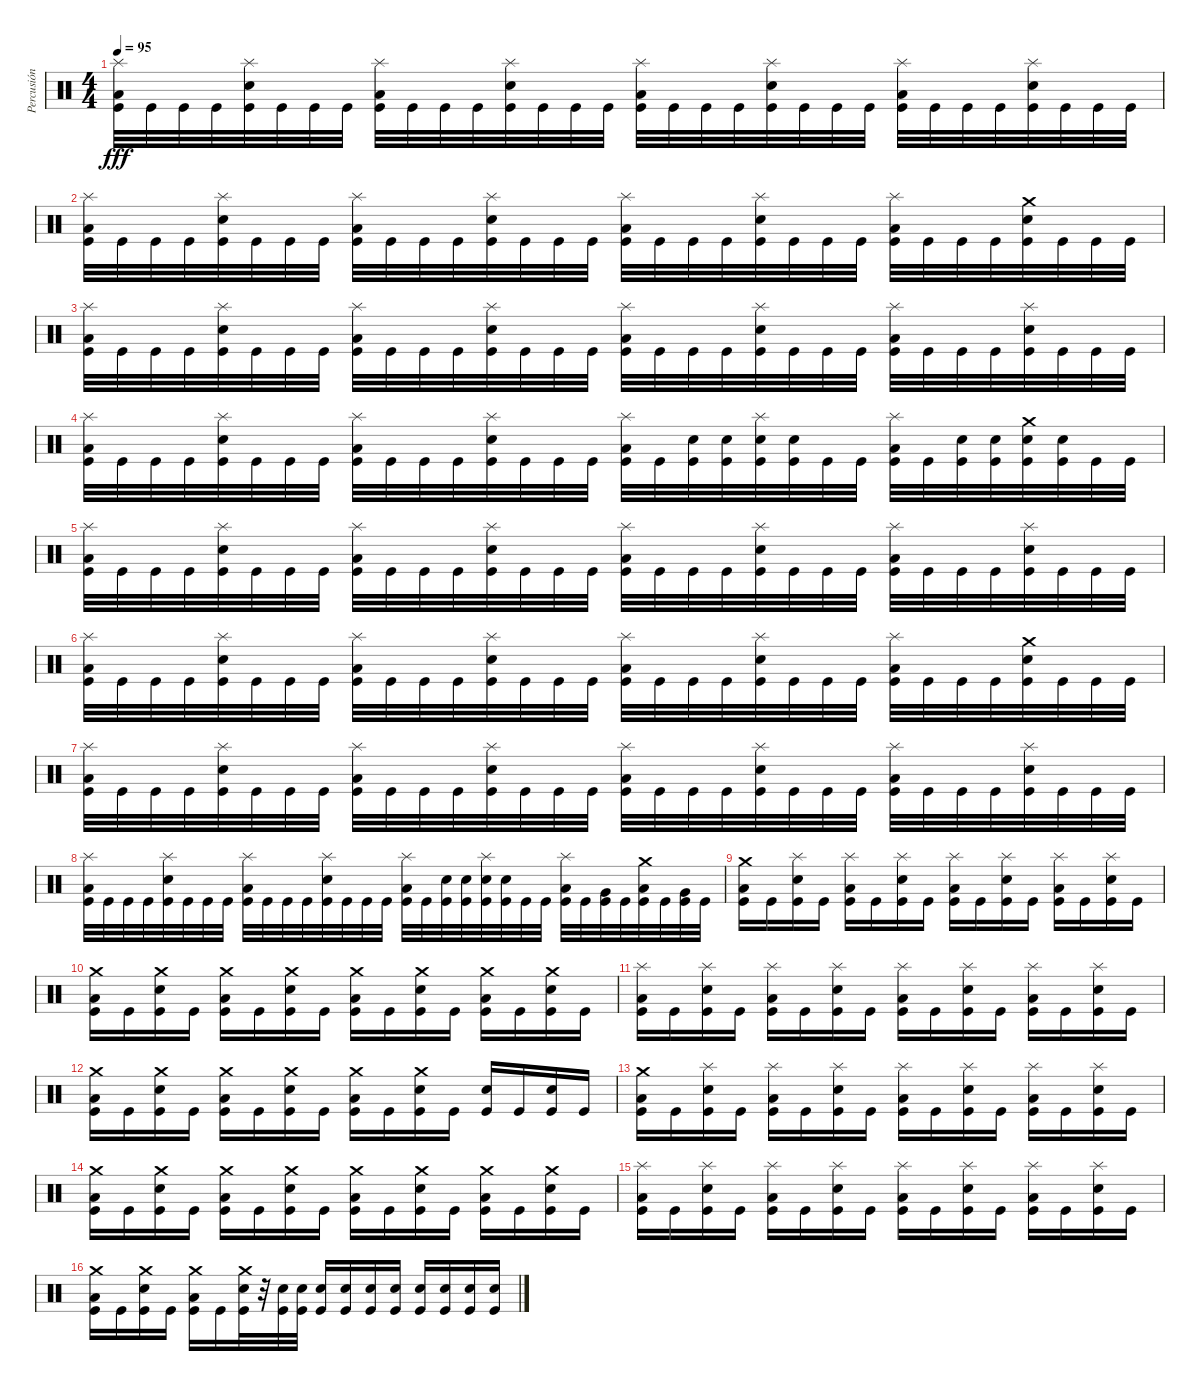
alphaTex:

\track ("Percusión" "Percusión") {instrument percussion}
\staff {score}
\articulation defaults
\ts (4 4)
\tempo 95
\clef neutral
\ks c
("Splash (hit)" "Low Floor Tom (hit)" "Kick (hit)").32{dy fff} "Kick (hit)".32 "Kick (hit)".32 "Kick (hit)".32 ("Splash (hit)" "Snare (hit) 2" "Kick (hit)").32 "Kick (hit)".32 "Kick (hit)".32 "Kick (hit)".32 ("Splash (hit)" "Low Floor Tom (hit)" "Kick (hit)").32 "Kick (hit)".32 "Kick (hit)".32 "Kick (hit)".32 ("Splash (hit)" "Snare (hit) 2" "Kick (hit)").32 "Kick (hit)".32 "Kick (hit)".32 "Kick (hit)".32 ("Splash (hit)" "Low Floor Tom (hit)" "Kick (hit)").32 "Kick (hit)".32 "Kick (hit)".32 "Kick (hit)".32 ("Splash (hit)" "Snare (hit) 2" "Kick (hit)").32 "Kick (hit)".32 "Kick (hit)".32 "Kick (hit)".32 ("Splash (hit)" "Low Floor Tom (hit)" "Kick (hit)").32 "Kick (hit)".32 "Kick (hit)".32 "Kick (hit)".32 ("Splash (hit)" "Snare (hit) 2" "Kick (hit)").32 "Kick (hit)".32 "Kick (hit)".32 "Kick (hit)".32 |
("Splash (hit)" "Low Floor Tom (hit)" "Kick (hit)").32 "Kick (hit)".32 "Kick (hit)".32 "Kick (hit)".32 ("Splash (hit)" "Snare (hit) 2" "Kick (hit)").32 "Kick (hit)".32 "Kick (hit)".32 "Kick (hit)".32 ("Splash (hit)" "Low Floor Tom (hit)" "Kick (hit)").32 "Kick (hit)".32 "Kick (hit)".32 "Kick (hit)".32 ("Splash (hit)" "Snare (hit) 2" "Kick (hit)").32 "Kick (hit)".32 "Kick (hit)".32 "Kick (hit)".32 ("Splash (hit)" "Low Floor Tom (hit)" "Kick (hit)").32 "Kick (hit)".32 "Kick (hit)".32 "Kick (hit)".32 ("Splash (hit)" "Snare (hit) 2" "Kick (hit)").32 "Kick (hit)".32 "Kick (hit)".32 "Kick (hit)".32 ("Splash (hit)" "Low Floor Tom (hit)" "Kick (hit)").32 "Kick (hit)".32 "Kick (hit)".32 "Kick (hit)".32 ("Crash medium (hit)" "Snare (hit) 2" "Kick (hit)").32 "Kick (hit)".32 "Kick (hit)".32 "Kick (hit)".32 |
("Splash (hit)" "Low Floor Tom (hit)" "Kick (hit)").32 "Kick (hit)".32 "Kick (hit)".32 "Kick (hit)".32 ("Splash (hit)" "Snare (hit) 2" "Kick (hit)").32 "Kick (hit)".32 "Kick (hit)".32 "Kick (hit)".32 ("Splash (hit)" "Low Floor Tom (hit)" "Kick (hit)").32 "Kick (hit)".32 "Kick (hit)".32 "Kick (hit)".32 ("Splash (hit)" "Snare (hit) 2" "Kick (hit)").32 "Kick (hit)".32 "Kick (hit)".32 "Kick (hit)".32 ("Splash (hit)" "Low Floor Tom (hit)" "Kick (hit)").32 "Kick (hit)".32 "Kick (hit)".32 "Kick (hit)".32 ("Splash (hit)" "Snare (hit) 2" "Kick (hit)").32 "Kick (hit)".32 "Kick (hit)".32 "Kick (hit)".32 ("Splash (hit)" "Low Floor Tom (hit)" "Kick (hit)").32 "Kick (hit)".32 "Kick (hit)".32 "Kick (hit)".32 ("Splash (hit)" "Snare (hit) 2" "Kick (hit)").32 "Kick (hit)".32 "Kick (hit)".32 "Kick (hit)".32 |
("Splash (hit)" "Low Floor Tom (hit)" "Kick (hit)").32 "Kick (hit)".32 "Kick (hit)".32 "Kick (hit)".32 ("Splash (hit)" "Snare (hit) 2" "Kick (hit)").32 "Kick (hit)".32 "Kick (hit)".32 "Kick (hit)".32 ("Splash (hit)" "Low Floor Tom (hit)" "Kick (hit)").32 "Kick (hit)".32 "Kick (hit)".32 "Kick (hit)".32 ("Splash (hit)" "Snare (hit) 2" "Kick (hit)").32 "Kick (hit)".32 "Kick (hit)".32 "Kick (hit)".32 ("Splash (hit)" "Low Floor Tom (hit)" "Kick (hit)").32 "Kick (hit)".32 ("Snare (hit) 2" "Kick (hit)").32 ("Snare (hit) 2" "Kick (hit)").32 ("Splash (hit)" "Snare (hit) 2" "Kick (hit)").32 ("Snare (hit) 2" "Kick (hit)").32 "Kick (hit)".32 "Kick (hit)".32 ("Splash (hit)" "Low Floor Tom (hit)" "Kick (hit)").32 "Kick (hit)".32 ("Snare (hit) 2" "Kick (hit)").32 ("Snare (hit) 2" "Kick (hit)").32 ("Crash medium (hit)" "Snare (hit) 2" "Kick (hit)").32 ("Snare (hit) 2" "Kick (hit)").32 "Kick (hit)".32 "Kick (hit)".32 |
("Splash (hit)" "Low Floor Tom (hit)" "Kick (hit)").32 "Kick (hit)".32 "Kick (hit)".32 "Kick (hit)".32 ("Splash (hit)" "Snare (hit) 2" "Kick (hit)").32 "Kick (hit)".32 "Kick (hit)".32 "Kick (hit)".32 ("Splash (hit)" "Low Floor Tom (hit)" "Kick (hit)").32 "Kick (hit)".32 "Kick (hit)".32 "Kick (hit)".32 ("Splash (hit)" "Snare (hit) 2" "Kick (hit)").32 "Kick (hit)".32 "Kick (hit)".32 "Kick (hit)".32 ("Splash (hit)" "Low Floor Tom (hit)" "Kick (hit)").32 "Kick (hit)".32 "Kick (hit)".32 "Kick (hit)".32 ("Splash (hit)" "Snare (hit) 2" "Kick (hit)").32 "Kick (hit)".32 "Kick (hit)".32 "Kick (hit)".32 ("Splash (hit)" "Low Floor Tom (hit)" "Kick (hit)").32 "Kick (hit)".32 "Kick (hit)".32 "Kick (hit)".32 ("Splash (hit)" "Snare (hit) 2" "Kick (hit)").32 "Kick (hit)".32 "Kick (hit)".32 "Kick (hit)".32 |
("Splash (hit)" "Low Floor Tom (hit)" "Kick (hit)").32 "Kick (hit)".32 "Kick (hit)".32 "Kick (hit)".32 ("Splash (hit)" "Snare (hit) 2" "Kick (hit)").32 "Kick (hit)".32 "Kick (hit)".32 "Kick (hit)".32 ("Splash (hit)" "Low Floor Tom (hit)" "Kick (hit)").32 "Kick (hit)".32 "Kick (hit)".32 "Kick (hit)".32 ("Splash (hit)" "Snare (hit) 2" "Kick (hit)").32 "Kick (hit)".32 "Kick (hit)".32 "Kick (hit)".32 ("Splash (hit)" "Low Floor Tom (hit)" "Kick (hit)").32 "Kick (hit)".32 "Kick (hit)".32 "Kick (hit)".32 ("Splash (hit)" "Snare (hit) 2" "Kick (hit)").32 "Kick (hit)".32 "Kick (hit)".32 "Kick (hit)".32 ("Splash (hit)" "Low Floor Tom (hit)" "Kick (hit)").32 "Kick (hit)".32 "Kick (hit)".32 "Kick (hit)".32 ("Crash medium (hit)" "Snare (hit) 2" "Kick (hit)").32 "Kick (hit)".32 "Kick (hit)".32 "Kick (hit)".32 |
("Splash (hit)" "Low Floor Tom (hit)" "Kick (hit)").32 "Kick (hit)".32 "Kick (hit)".32 "Kick (hit)".32 ("Splash (hit)" "Snare (hit) 2" "Kick (hit)").32 "Kick (hit)".32 "Kick (hit)".32 "Kick (hit)".32 ("Splash (hit)" "Low Floor Tom (hit)" "Kick (hit)").32 "Kick (hit)".32 "Kick (hit)".32 "Kick (hit)".32 ("Splash (hit)" "Snare (hit) 2" "Kick (hit)").32 "Kick (hit)".32 "Kick (hit)".32 "Kick (hit)".32 ("Splash (hit)" "Low Floor Tom (hit)" "Kick (hit)").32 "Kick (hit)".32 "Kick (hit)".32 "Kick (hit)".32 ("Splash (hit)" "Snare (hit) 2" "Kick (hit)").32 "Kick (hit)".32 "Kick (hit)".32 "Kick (hit)".32 ("Splash (hit)" "Low Floor Tom (hit)" "Kick (hit)").32 "Kick (hit)".32 "Kick (hit)".32 "Kick (hit)".32 ("Splash (hit)" "Snare (hit) 2" "Kick (hit)").32 "Kick (hit)".32 "Kick (hit)".32 "Kick (hit)".32 |
("Splash (hit)" "Low Floor Tom (hit)" "Kick (hit)").32 "Kick (hit)".32 "Kick (hit)".32 "Kick (hit)".32 ("Splash (hit)" "Snare (hit) 2" "Kick (hit)").32 "Kick (hit)".32 "Kick (hit)".32 "Kick (hit)".32 ("Splash (hit)" "Low Floor Tom (hit)" "Kick (hit)").32 "Kick (hit)".32 "Kick (hit)".32 "Kick (hit)".32 ("Splash (hit)" "Snare (hit) 2" "Kick (hit)").32 "Kick (hit)".32 "Kick (hit)".32 "Kick (hit)".32 ("Splash (hit)" "Low Floor Tom (hit)" "Kick (hit)").32 "Kick (hit)".32 ("Snare (hit) 2" "Kick (hit)").32 ("Snare (hit) 2" "Kick (hit)").32 ("Splash (hit)" "Snare (hit) 2" "Kick (hit)").32 ("Snare (hit) 2" "Kick (hit)").32 "Kick (hit)".32 "Kick (hit)".32 ("Splash (hit)" "Low Floor Tom (hit)" "Kick (hit)").32 "Kick (hit)".32 ("Very Low Tom (hit)" "Kick (hit)").32 "Kick (hit)".32 ("Crash medium (hit)" "Low Floor Tom (hit)" "Kick (hit)").32 "Kick (hit)".32 ("Very Low Tom (hit)" "Kick (hit)").32 "Kick (hit)".32 |
("Crash medium (hit)" "Low Floor Tom (hit)" "Kick (hit)").16 "Kick (hit)".16 ("Splash (hit)" "Snare (hit) 2" "Kick (hit)").16 "Kick (hit)".16 ("Splash (hit)" "Low Floor Tom (hit)" "Kick (hit)").16 "Kick (hit)".16 ("Splash (hit)" "Snare (hit) 2" "Kick (hit)").16 "Kick (hit)".16 ("Splash (hit)" "Low Floor Tom (hit)" "Kick (hit)").16 "Kick (hit)".16 ("Splash (hit)" "Snare (hit) 2" "Kick (hit)").16 "Kick (hit)".16 ("Splash (hit)" "Low Floor Tom (hit)" "Kick (hit)").16 "Kick (hit)".16 ("Splash (hit)" "Snare (hit) 2" "Kick (hit)").16 "Kick (hit)".16 |
("Crash medium (hit)" "Low Floor Tom (hit)" "Kick (hit)").16 "Kick (hit)".16 ("Crash medium (hit)" "Snare (hit) 2" "Kick (hit)").16 "Kick (hit)".16 ("Crash medium (hit)" "Low Floor Tom (hit)" "Kick (hit)").16 "Kick (hit)".16 ("Crash medium (hit)" "Snare (hit) 2" "Kick (hit)").16 "Kick (hit)".16 ("Crash medium (hit)" "Low Floor Tom (hit)" "Kick (hit)").16 "Kick (hit)".16 ("Crash medium (hit)" "Snare (hit) 2" "Kick (hit)").16 "Kick (hit)".16 ("Crash medium (hit)" "Low Floor Tom (hit)" "Kick (hit)").16 "Kick (hit)".16 ("Crash medium (hit)" "Snare (hit) 2" "Kick (hit)").16 "Kick (hit)".16 |
("Splash (hit)" "Low Floor Tom (hit)" "Kick (hit)").16 "Kick (hit)".16 ("Splash (hit)" "Snare (hit) 2" "Kick (hit)").16 "Kick (hit)".16 ("Splash (hit)" "Low Floor Tom (hit)" "Kick (hit)").16 "Kick (hit)".16 ("Splash (hit)" "Snare (hit) 2" "Kick (hit)").16 "Kick (hit)".16 ("Splash (hit)" "Low Floor Tom (hit)" "Kick (hit)").16 "Kick (hit)".16 ("Splash (hit)" "Snare (hit) 2" "Kick (hit)").16 "Kick (hit)".16 ("Splash (hit)" "Low Floor Tom (hit)" "Kick (hit)").16 "Kick (hit)".16 ("Splash (hit)" "Snare (hit) 2" "Kick (hit)").16 "Kick (hit)".16 |
("Crash medium (hit)" "Low Floor Tom (hit)" "Kick (hit)").16 "Kick (hit)".16 ("Crash medium (hit)" "Snare (hit) 2" "Kick (hit)").16 "Kick (hit)".16 ("Crash medium (hit)" "Low Floor Tom (hit)" "Kick (hit)").16 "Kick (hit)".16 ("Crash medium (hit)" "Snare (hit) 2" "Kick (hit)").16 "Kick (hit)".16 ("Crash medium (hit)" "Low Floor Tom (hit)" "Kick (hit)").16 "Kick (hit)".16 ("Crash medium (hit)" "Snare (hit) 2" "Kick (hit)").16 "Kick (hit)".16 ("Snare (hit) 2" "Kick (hit)").16 "Kick (hit)".16 ("Snare (hit) 2" "Kick (hit)").16 "Kick (hit)".16 |
("Crash medium (hit)" "Low Floor Tom (hit)" "Kick (hit)").16 "Kick (hit)".16 ("Splash (hit)" "Snare (hit) 2" "Kick (hit)").16 "Kick (hit)".16 ("Splash (hit)" "Low Floor Tom (hit)" "Kick (hit)").16 "Kick (hit)".16 ("Splash (hit)" "Snare (hit) 2" "Kick (hit)").16 "Kick (hit)".16 ("Splash (hit)" "Low Floor Tom (hit)" "Kick (hit)").16 "Kick (hit)".16 ("Splash (hit)" "Snare (hit) 2" "Kick (hit)").16 "Kick (hit)".16 ("Splash (hit)" "Low Floor Tom (hit)" "Kick (hit)").16 "Kick (hit)".16 ("Splash (hit)" "Snare (hit) 2" "Kick (hit)").16 "Kick (hit)".16 |
("Crash medium (hit)" "Low Floor Tom (hit)" "Kick (hit)").16 "Kick (hit)".16 ("Crash medium (hit)" "Snare (hit) 2" "Kick (hit)").16 "Kick (hit)".16 ("Crash medium (hit)" "Low Floor Tom (hit)" "Kick (hit)").16 "Kick (hit)".16 ("Crash medium (hit)" "Snare (hit) 2" "Kick (hit)").16 "Kick (hit)".16 ("Crash medium (hit)" "Low Floor Tom (hit)" "Kick (hit)").16 "Kick (hit)".16 ("Crash medium (hit)" "Snare (hit) 2" "Kick (hit)").16 "Kick (hit)".16 ("Crash medium (hit)" "Low Floor Tom (hit)" "Kick (hit)").16 "Kick (hit)".16 ("Crash medium (hit)" "Snare (hit) 2" "Kick (hit)").16 "Kick (hit)".16 |
("Splash (hit)" "Low Floor Tom (hit)" "Kick (hit)").16 "Kick (hit)".16 ("Splash (hit)" "Snare (hit) 2" "Kick (hit)").16 "Kick (hit)".16 ("Splash (hit)" "Low Floor Tom (hit)" "Kick (hit)").16 "Kick (hit)".16 ("Splash (hit)" "Snare (hit) 2" "Kick (hit)").16 "Kick (hit)".16 ("Splash (hit)" "Low Floor Tom (hit)" "Kick (hit)").16 "Kick (hit)".16 ("Splash (hit)" "Snare (hit) 2" "Kick (hit)").16 "Kick (hit)".16 ("Splash (hit)" "Low Floor Tom (hit)" "Kick (hit)").16 "Kick (hit)".16 ("Splash (hit)" "Snare (hit) 2" "Kick (hit)").16 "Kick (hit)".16 |
("Crash medium (hit)" "Low Floor Tom (hit)" "Kick (hit)").16 "Kick (hit)".16 ("Crash medium (hit)" "Snare (hit) 2" "Kick (hit)").16 "Kick (hit)".16 ("Crash medium (hit)" "Low Floor Tom (hit)" "Kick (hit)").16 "Kick (hit)".16 ("Crash medium (hit)" "Snare (hit) 2" "Kick (hit)").32 r.32 ("Snare (hit) 2" "Kick (hit)").32 ("Snare (hit) 2" "Kick (hit)").32 ("Snare (hit) 2" "Kick (hit)").16 ("Snare (hit) 2" "Kick (hit)").16 ("Snare (hit) 2" "Kick (hit)").16 ("Snare (hit) 2" "Kick (hit)").16 ("Snare (hit) 2" "Kick (hit)").16 ("Snare (hit) 2" "Kick (hit)").16 ("Snare (hit) 2" "Kick (hit)").16 ("Snare (hit) 2" "Kick (hit)").16
